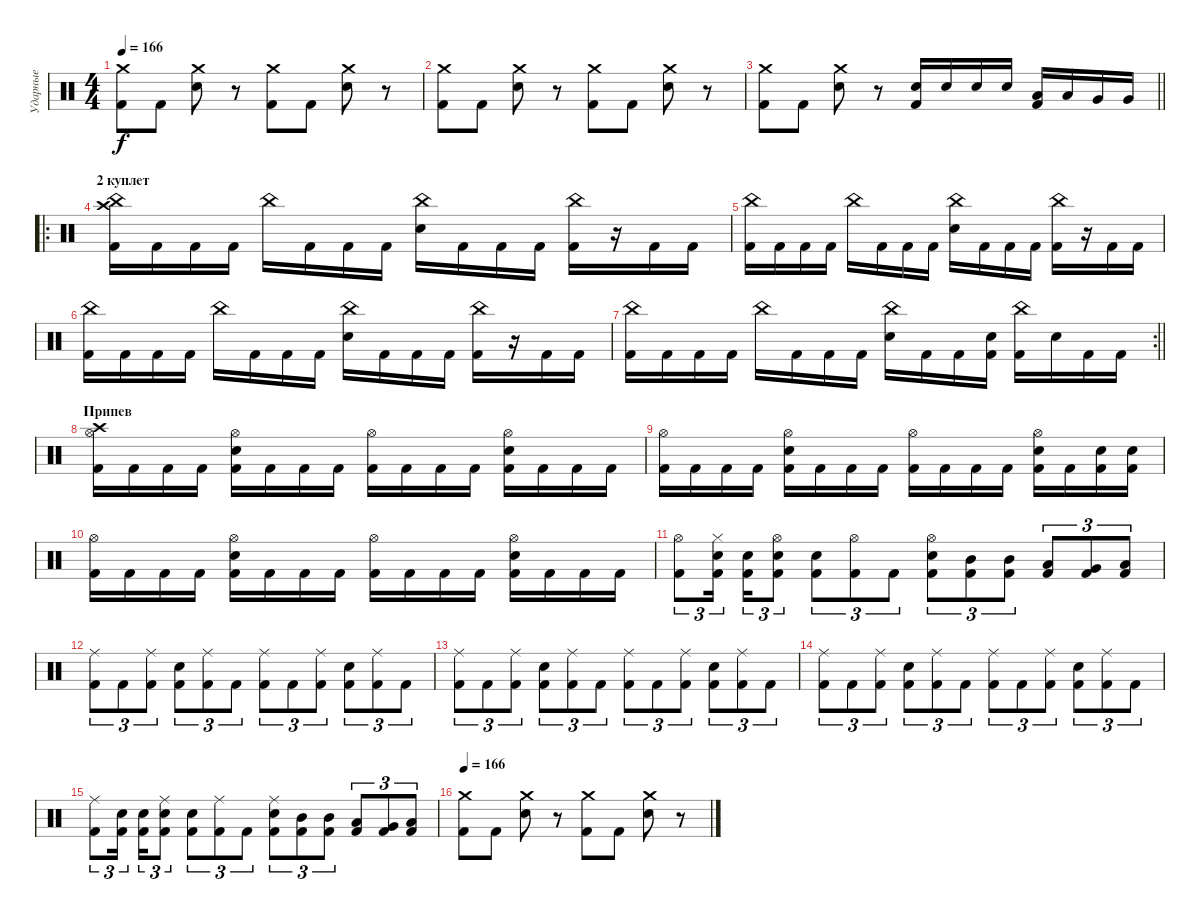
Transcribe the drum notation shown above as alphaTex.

\track ("Ударные" "Ударные") {instrument percussion}
\staff {score}
\articulation defaults
\ts (4 4)
\tempo 166
\clef neutral
\ks c
("Crash medium (hit)" "Kick (hit) 2").8{dy f} "Kick (hit) 2".8 ("Crash medium (hit)" "Snare (hit) 2").8 r.8 ("Crash medium (hit)" "Kick (hit) 2").8 "Kick (hit) 2".8 ("Crash medium (hit)" "Snare (hit) 2").8 r.8 |
("Crash medium (hit)" "Kick (hit) 2").8 "Kick (hit) 2".8 ("Crash medium (hit)" "Snare (hit) 2").8 r.8 ("Crash medium (hit)" "Kick (hit) 2").8 "Kick (hit) 2".8 ("Crash medium (hit)" "Snare (hit) 2").8 r.8 |
\barLineRight lightlight
("Crash medium (hit)" "Kick (hit) 2").8 "Kick (hit) 2".8 ("Crash medium (hit)" "Snare (hit) 2").8 r.8 ("Snare (hit) 2" "Kick (hit) 2").16 "Snare (hit) 2".16 "Snare (hit) 2".16 "Snare (hit) 2".16 ("Low Tom (hit)" "Kick (hit) 2").16 "Low Tom (hit)".16 "Very Low Tom (hit)".16 "Very Low Tom (hit)".16 |
\ro
\section ("" "2 куплет")
("China (hit)" "Crash high (hit)" "Kick (hit) 2").16 "Kick (hit) 2".16 "Kick (hit) 2".16 "Kick (hit) 2".16 "China (hit)".16 "Kick (hit) 2".16 "Kick (hit) 2".16 "Kick (hit) 2".16 ("Snare (hit) 2" "China (hit)").16 "Kick (hit) 2".16 "Kick (hit) 2".16 "Kick (hit) 2".16 ("China (hit)" "Kick (hit) 2").16 r.16 "Kick (hit) 2".16 "Kick (hit) 2".16 |
("China (hit)" "Kick (hit) 2").16 "Kick (hit) 2".16 "Kick (hit) 2".16 "Kick (hit) 2".16 "China (hit)".16 "Kick (hit) 2".16 "Kick (hit) 2".16 "Kick (hit) 2".16 ("Snare (hit) 2" "China (hit)").16 "Kick (hit) 2".16 "Kick (hit) 2".16 "Kick (hit) 2".16 ("China (hit)" "Kick (hit) 2").16 r.16 "Kick (hit) 2".16 "Kick (hit) 2".16 |
("China (hit)" "Kick (hit) 2").16 "Kick (hit) 2".16 "Kick (hit) 2".16 "Kick (hit) 2".16 "China (hit)".16 "Kick (hit) 2".16 "Kick (hit) 2".16 "Kick (hit) 2".16 ("Snare (hit) 2" "China (hit)").16 "Kick (hit) 2".16 "Kick (hit) 2".16 "Kick (hit) 2".16 ("China (hit)" "Kick (hit) 2").16 r.16 "Kick (hit) 2".16 "Kick (hit) 2".16 |
\rc 2
\barLineRight lightlight
("China (hit)" "Kick (hit) 2").16 "Kick (hit) 2".16 "Kick (hit) 2".16 "Kick (hit) 2".16 "China (hit)".16 "Kick (hit) 2".16 "Kick (hit) 2".16 "Kick (hit) 2".16 ("Snare (hit) 2" "China (hit)").16 "Kick (hit) 2".16 "Kick (hit) 2".16 ("Snare (hit) 2" "Kick (hit) 2").16 ("China (hit)" "Kick (hit) 2").16 "Snare (hit) 2".16 "Kick (hit) 2".16 "Kick (hit) 2".16 |
\section ("" "Припев")
("Hi-Hat (open)" "Crash high (hit)" "Kick (hit) 2").16 "Kick (hit) 2".16 "Kick (hit) 2".16 "Kick (hit) 2".16 ("Hi-Hat (open)" "Snare (hit) 2" "Kick (hit) 2").16 "Kick (hit) 2".16 "Kick (hit) 2".16 "Kick (hit) 2".16 ("Hi-Hat (open)" "Kick (hit) 2").16 "Kick (hit) 2".16 "Kick (hit) 2".16 "Kick (hit) 2".16 ("Hi-Hat (open)" "Snare (hit) 2" "Kick (hit) 2").16 "Kick (hit) 2".16 "Kick (hit) 2".16 "Kick (hit) 2".16 |
("Hi-Hat (open)" "Kick (hit) 2").16 "Kick (hit) 2".16 "Kick (hit) 2".16 "Kick (hit) 2".16 ("Hi-Hat (open)" "Snare (hit) 2" "Kick (hit) 2").16 "Kick (hit) 2".16 "Kick (hit) 2".16 "Kick (hit) 2".16 ("Hi-Hat (open)" "Kick (hit) 2").16 "Kick (hit) 2".16 "Kick (hit) 2".16 "Kick (hit) 2".16 ("Hi-Hat (open)" "Snare (hit) 2" "Kick (hit) 2").16 "Kick (hit) 2".16 ("Snare (hit) 2" "Kick (hit) 2").16 ("Snare (hit) 2" "Kick (hit) 2").16 |
("Hi-Hat (open)" "Kick (hit) 2").16 "Kick (hit) 2".16 "Kick (hit) 2".16 "Kick (hit) 2".16 ("Hi-Hat (open)" "Snare (hit) 2" "Kick (hit) 2").16 "Kick (hit) 2".16 "Kick (hit) 2".16 "Kick (hit) 2".16 ("Hi-Hat (open)" "Kick (hit) 2").16 "Kick (hit) 2".16 "Kick (hit) 2".16 "Kick (hit) 2".16 ("Hi-Hat (open)" "Snare (hit) 2" "Kick (hit) 2").16 "Kick (hit) 2".16 "Kick (hit) 2".16 "Kick (hit) 2".16 |
("Hi-Hat (open)" "Kick (hit) 2").8{tu (3 2)} ("Hi-Hat (closed)" "Snare (hit) 2" "Kick (hit) 2").16{tu (3 2) beam splitsecondary} ("Snare (hit) 2" "Kick (hit) 2").16{tu (3 2)} ("Hi-Hat (open)" "Snare (hit) 2" "Kick (hit) 2").8{tu (3 2)} ("Snare (hit) 2" "Kick (hit) 2").8{tu (3 2)} ("Hi-Hat (open)" "Kick (hit) 2").8{tu (3 2)} "Kick (hit) 2".8{tu (3 2)} ("Hi-Hat (open)" "Snare (hit) 2" "Kick (hit) 2").8{tu (3 2)} ("Mid Tom (hit)" "Kick (hit) 2").8{tu (3 2)} ("Mid Tom (hit)" "Kick (hit) 2").8{tu (3 2)} ("Low Tom (hit)" "Kick (hit) 2").8{tu (3 2)} ("Very Low Tom (hit)" "Kick (hit) 2").8{tu (3 2)} ("Low Floor Tom (hit)" "Kick (hit) 2").8{tu (3 2)} |
("Ride (middle)" "Kick (hit) 2").8{tu (3 2)} "Kick (hit) 2".8{tu (3 2)} ("Ride (middle)" "Kick (hit) 2").8{tu (3 2)} ("Snare (hit) 2" "Kick (hit) 2").8{tu (3 2)} ("Ride (middle)" "Kick (hit) 2").8{tu (3 2)} "Kick (hit) 2".8{tu (3 2)} ("Ride (middle)" "Kick (hit) 2").8{tu (3 2)} "Kick (hit) 2".8{tu (3 2)} ("Ride (middle)" "Kick (hit) 2").8{tu (3 2)} ("Snare (hit) 2" "Kick (hit) 2").8{tu (3 2)} ("Ride (middle)" "Kick (hit) 2").8{tu (3 2)} "Kick (hit) 2".8{tu (3 2)} |
("Ride (middle)" "Kick (hit) 2").8{tu (3 2)} "Kick (hit) 2".8{tu (3 2)} ("Ride (middle)" "Kick (hit) 2").8{tu (3 2)} ("Snare (hit) 2" "Kick (hit) 2").8{tu (3 2)} ("Ride (middle)" "Kick (hit) 2").8{tu (3 2)} "Kick (hit) 2".8{tu (3 2)} ("Ride (middle)" "Kick (hit) 2").8{tu (3 2)} "Kick (hit) 2".8{tu (3 2)} ("Ride (middle)" "Kick (hit) 2").8{tu (3 2)} ("Snare (hit) 2" "Kick (hit) 2").8{tu (3 2)} ("Ride (middle)" "Kick (hit) 2").8{tu (3 2)} "Kick (hit) 2".8{tu (3 2)} |
("Ride (middle)" "Kick (hit) 2").8{tu (3 2)} "Kick (hit) 2".8{tu (3 2)} ("Ride (middle)" "Kick (hit) 2").8{tu (3 2)} ("Snare (hit) 2" "Kick (hit) 2").8{tu (3 2)} ("Ride (middle)" "Kick (hit) 2").8{tu (3 2)} "Kick (hit) 2".8{tu (3 2)} ("Ride (middle)" "Kick (hit) 2").8{tu (3 2)} "Kick (hit) 2".8{tu (3 2)} ("Ride (middle)" "Kick (hit) 2").8{tu (3 2)} ("Snare (hit) 2" "Kick (hit) 2").8{tu (3 2)} ("Ride (middle)" "Kick (hit) 2").8{tu (3 2)} "Kick (hit) 2".8{tu (3 2)} |
("Ride (middle)" "Kick (hit) 2").8{tu (3 2)} ("Snare (hit) 2" "Kick (hit) 2").16{tu (3 2) beam splitsecondary} ("Snare (hit) 2" "Kick (hit) 2").16{tu (3 2)} ("Ride (middle)" "Snare (hit) 2" "Kick (hit) 2").8{tu (3 2)} ("Snare (hit) 2" "Kick (hit) 2").8{tu (3 2)} ("Ride (middle)" "Kick (hit) 2").8{tu (3 2)} "Kick (hit) 2".8{tu (3 2)} ("Ride (middle)" "Snare (hit) 2" "Kick (hit) 2").8{tu (3 2)} ("Mid Tom (hit)" "Kick (hit) 2").8{tu (3 2)} ("Mid Tom (hit)" "Kick (hit) 2").8{tu (3 2)} ("Low Tom (hit)" "Kick (hit) 2").8{tu (3 2)} ("Very Low Tom (hit)" "Kick (hit) 2").8{tu (3 2)} ("Low Floor Tom (hit)" "Kick (hit) 2").8{tu (3 2)} |
\tempo 166
("Crash medium (hit)" "Kick (hit) 2").8 "Kick (hit) 2".8 ("Crash medium (hit)" "Snare (hit) 2").8 r.8 ("Crash medium (hit)" "Kick (hit) 2").8 "Kick (hit) 2".8 ("Crash medium (hit)" "Snare (hit) 2").8 r.8
